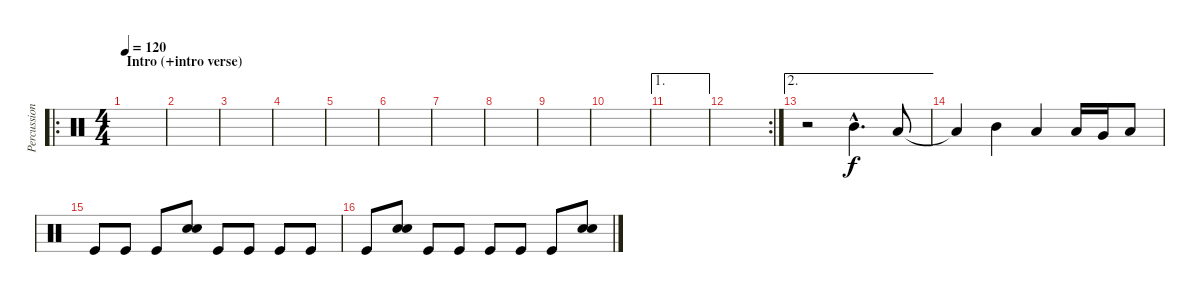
\track ("Percussion" "Percussion") {instrument percussion}
\staff {score}
\articulation defaults
\ro
\ts (4 4)
\section ("" "Intro (+intro verse)")
\tempo 120
\clef neutral
\ks c
|
|
|
|
|
|
|
|
|
|
\ae 1
|
\rc 2
|
\ae 2
r.2 "Mid Tom (hit)"{hac}.4{d} "Low Tom (hit)".8 |
"Low Tom (hit)"{t}.4 "Mid Tom (hit)".4 "Low Tom (hit)".4 "Low Tom (hit)".16 "Very Low Tom (hit)".16 "Low Floor Tom (hit)".8 |
"Kick (hit)".8 "Kick (hit)".8 "Kick (hit)".8 ("Snare (hit) 2" "Electric Snare (hit)").8 "Kick (hit)".8 "Kick (hit)".8 "Kick (hit)".8 "Kick (hit)".8 |
"Kick (hit)".8 ("Snare (hit) 2" "Electric Snare (hit)").8 "Kick (hit)".8 "Kick (hit)".8 "Kick (hit)".8 "Kick (hit)".8 "Kick (hit)".8 ("Snare (hit) 2" "Electric Snare (hit)").8
